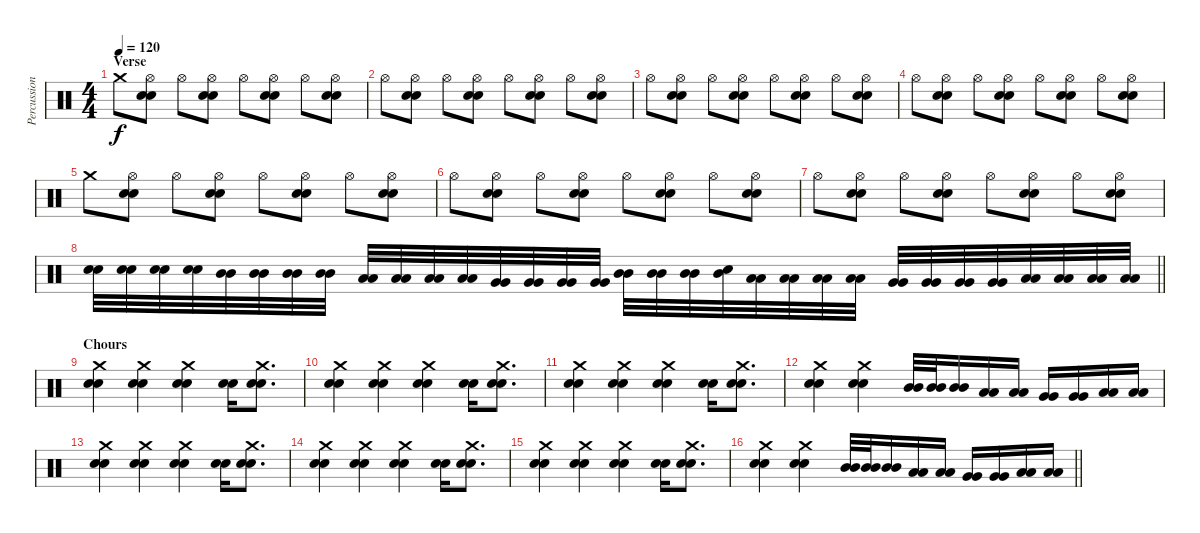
\track ("Percussioni" "Percussion") {instrument percussion}
\staff
\articulation defaults
\ts (4 4)
\section ("" "Verse")
\tempo 120
\clef neutral
\ks c "Crash medium (hit)".8{dy f}
("Hi-Hat (open)" "Electric Snare (hit)" "Snare (hit) 2").8 "Hi-Hat (open)".8 ("Hi-Hat (open)" "Electric Snare (hit)" "Snare (hit) 2").8 "Hi-Hat (open)".8 ("Hi-Hat (open)" "Electric Snare (hit)" "Snare (hit) 2").8 "Hi-Hat (open)".8 ("Hi-Hat (open)" "Electric Snare (hit)" "Snare (hit) 2").8 |
"Hi-Hat (open)".8 ("Hi-Hat (open)" "Electric Snare (hit)" "Snare (hit) 2").8 "Hi-Hat (open)".8 ("Hi-Hat (open)" "Electric Snare (hit)" "Snare (hit) 2").8 "Hi-Hat (open)".8 ("Hi-Hat (open)" "Electric Snare (hit)" "Snare (hit) 2").8 "Hi-Hat (open)".8 ("Hi-Hat (open)" "Electric Snare (hit)" "Snare (hit) 2").8 |
"Hi-Hat (open)".8 ("Hi-Hat (open)" "Electric Snare (hit)" "Snare (hit) 2").8 "Hi-Hat (open)".8 ("Hi-Hat (open)" "Electric Snare (hit)" "Snare (hit) 2").8 "Hi-Hat (open)".8 ("Hi-Hat (open)" "Electric Snare (hit)" "Snare (hit) 2").8 "Hi-Hat (open)".8 ("Hi-Hat (open)" "Electric Snare (hit)" "Snare (hit) 2").8 |
"Hi-Hat (open)".8 ("Hi-Hat (open)" "Electric Snare (hit)" "Snare (hit) 2").8 "Hi-Hat (open)".8 ("Hi-Hat (open)" "Electric Snare (hit)" "Snare (hit) 2").8 "Hi-Hat (open)".8 ("Hi-Hat (open)" "Electric Snare (hit)" "Snare (hit) 2").8 "Hi-Hat (open)".8 ("Hi-Hat (open)" "Electric Snare (hit)" "Snare (hit) 2").8 |
"Crash medium (hit)".8 ("Hi-Hat (open)" "Electric Snare (hit)" "Snare (hit) 2").8 "Hi-Hat (open)".8 ("Hi-Hat (open)" "Electric Snare (hit)" "Snare (hit) 2").8 "Hi-Hat (open)".8 ("Hi-Hat (open)" "Electric Snare (hit)" "Snare (hit) 2").8 "Hi-Hat (open)".8 ("Hi-Hat (open)" "Electric Snare (hit)" "Snare (hit) 2").8 |
"Hi-Hat (open)".8 ("Hi-Hat (open)" "Electric Snare (hit)" "Snare (hit) 2").8 "Hi-Hat (open)".8 ("Hi-Hat (open)" "Electric Snare (hit)" "Snare (hit) 2").8 "Hi-Hat (open)".8 ("Hi-Hat (open)" "Electric Snare (hit)" "Snare (hit) 2").8 "Hi-Hat (open)".8 ("Hi-Hat (open)" "Electric Snare (hit)" "Snare (hit) 2").8 |
"Hi-Hat (open)".8 ("Hi-Hat (open)" "Electric Snare (hit)" "Snare (hit) 2").8 "Hi-Hat (open)".8 ("Hi-Hat (open)" "Electric Snare (hit)" "Snare (hit) 2").8 "Hi-Hat (open)".8 ("Hi-Hat (open)" "Electric Snare (hit)" "Snare (hit) 2").8 "Hi-Hat (open)".8 ("Hi-Hat (open)" "Electric Snare (hit)" "Snare (hit) 2").8 |
\barLineRight lightlight
("Electric Snare (hit)" "Snare (hit) 2").32 ("Electric Snare (hit)" "Snare (hit) 2").32 ("Electric Snare (hit)" "Snare (hit) 2").32 ("Electric Snare (hit)" "Snare (hit) 2").32 ("Mid Tom (hit)" "Mid Tom (hit)").32 ("Mid Tom (hit)" "Mid Tom (hit)").32 ("Mid Tom (hit)" "Mid Tom (hit)").32 ("Mid Tom (hit)" "Mid Tom (hit)").32 ("Low Tom (hit)" "Low Tom (hit)").32 ("Low Tom (hit)" "Low Tom (hit)").32 ("Low Tom (hit)" "Low Tom (hit)").32 ("Low Tom (hit)" "Low Tom (hit)").32 ("Very Low Tom (hit)" "Very Low Tom (hit)").32 ("Very Low Tom (hit)" "Very Low Tom (hit)").32 ("Very Low Tom (hit)" "Very Low Tom (hit)").32 ("Very Low Tom (hit)" "Very Low Tom (hit)").32 ("Mid Tom (hit)" "Mid Tom (hit)").32 ("Mid Tom (hit)" "Mid Tom (hit)").32 ("Mid Tom (hit)" "Mid Tom (hit)").32 ("Mid Tom (hit)" "Snare (hit)").32 ("Low Tom (hit)" "Low Tom (hit)").32 ("Low Tom (hit)" "Low Tom (hit)").32 ("Low Tom (hit)" "Low Tom (hit)").32 ("Low Tom (hit)" "Low Tom (hit)").32 ("Very Low Tom (hit)" "Very Low Tom (hit)").32 ("Very Low Tom (hit)" "Very Low Tom (hit)").32 ("Very Low Tom (hit)" "Very Low Tom (hit)").32 ("Very Low Tom (hit)" "Very Low Tom (hit)").32 ("Low Floor Tom (hit)" "Low Floor Tom (hit)").32 ("Low Floor Tom (hit)" "Low Floor Tom (hit)").32 ("Low Floor Tom (hit)" "Low Floor Tom (hit)").32 ("Low Floor Tom (hit)" "Low Floor Tom (hit)").32 |
\section ("" "Chours")
("Crash medium (hit)" "Electric Snare (hit)" "Snare (hit) 2").4 ("Crash medium (hit)" "Electric Snare (hit)" "Snare (hit) 2").4 ("Crash medium (hit)" "Electric Snare (hit)" "Snare (hit) 2").4 ("Electric Snare (hit)" "Snare (hit) 2").16 ("Crash medium (hit)" "Electric Snare (hit)" "Snare (hit) 2").8{d} |
("Crash medium (hit)" "Electric Snare (hit)" "Snare (hit) 2").4 ("Crash medium (hit)" "Electric Snare (hit)" "Snare (hit) 2").4 ("Crash medium (hit)" "Electric Snare (hit)" "Snare (hit) 2").4 ("Electric Snare (hit)" "Snare (hit) 2").16 ("Crash medium (hit)" "Electric Snare (hit)" "Snare (hit) 2").8{d} |
("Crash medium (hit)" "Electric Snare (hit)" "Snare (hit) 2").4 ("Crash medium (hit)" "Electric Snare (hit)" "Snare (hit) 2").4 ("Crash medium (hit)" "Electric Snare (hit)" "Snare (hit) 2").4 ("Electric Snare (hit)" "Snare (hit) 2").16 ("Crash medium (hit)" "Electric Snare (hit)" "Snare (hit) 2").8{d} |
("Crash medium (hit)" "Electric Snare (hit)" "Snare (hit) 2").4 ("Crash medium (hit)" "Electric Snare (hit)" "Snare (hit) 2").4 ("Mid Tom (hit)" "Mid Tom (hit)").32 ("Mid Tom (hit)" "Mid Tom (hit)").32 ("Mid Tom (hit)" "Mid Tom (hit)").16 ("Low Tom (hit)" "Low Tom (hit)").16 ("Low Tom (hit)" "Low Tom (hit)").16 ("Very Low Tom (hit)" "Very Low Tom (hit)").16 ("Very Low Tom (hit)" "Very Low Tom (hit)").16 ("Low Floor Tom (hit)" "Low Floor Tom (hit)").16 ("Low Floor Tom (hit)" "Low Floor Tom (hit)").16 |
("Crash medium (hit)" "Electric Snare (hit)" "Snare (hit) 2").4 ("Crash medium (hit)" "Electric Snare (hit)" "Snare (hit) 2").4 ("Crash medium (hit)" "Electric Snare (hit)" "Snare (hit) 2").4 ("Electric Snare (hit)" "Snare (hit) 2").16 ("Crash medium (hit)" "Electric Snare (hit)" "Snare (hit) 2").8{d} |
("Crash medium (hit)" "Electric Snare (hit)" "Snare (hit) 2").4 ("Crash medium (hit)" "Electric Snare (hit)" "Snare (hit) 2").4 ("Crash medium (hit)" "Electric Snare (hit)" "Snare (hit) 2").4 ("Electric Snare (hit)" "Snare (hit) 2").16 ("Crash medium (hit)" "Electric Snare (hit)" "Snare (hit) 2").8{d} |
("Crash medium (hit)" "Electric Snare (hit)" "Snare (hit) 2").4 ("Crash medium (hit)" "Electric Snare (hit)" "Snare (hit) 2").4 ("Crash medium (hit)" "Electric Snare (hit)" "Snare (hit) 2").4 ("Electric Snare (hit)" "Snare (hit) 2").16 ("Crash medium (hit)" "Electric Snare (hit)" "Snare (hit) 2").8{d} |
\barLineRight lightlight
("Crash medium (hit)" "Electric Snare (hit)" "Snare (hit) 2").4 ("Crash medium (hit)" "Electric Snare (hit)" "Snare (hit) 2").4 ("Mid Tom (hit)" "Mid Tom (hit)").32 ("Mid Tom (hit)" "Mid Tom (hit)").32 ("Mid Tom (hit)" "Mid Tom (hit)").16 ("Low Tom (hit)" "Low Tom (hit)").16 ("Low Tom (hit)" "Low Tom (hit)").16 ("Very Low Tom (hit)" "Very Low Tom (hit)").16 ("Very Low Tom (hit)" "Very Low Tom (hit)").16 ("Low Floor Tom (hit)" "Low Floor Tom (hit)").16 ("Low Floor Tom (hit)" "Low Floor Tom (hit)").16
